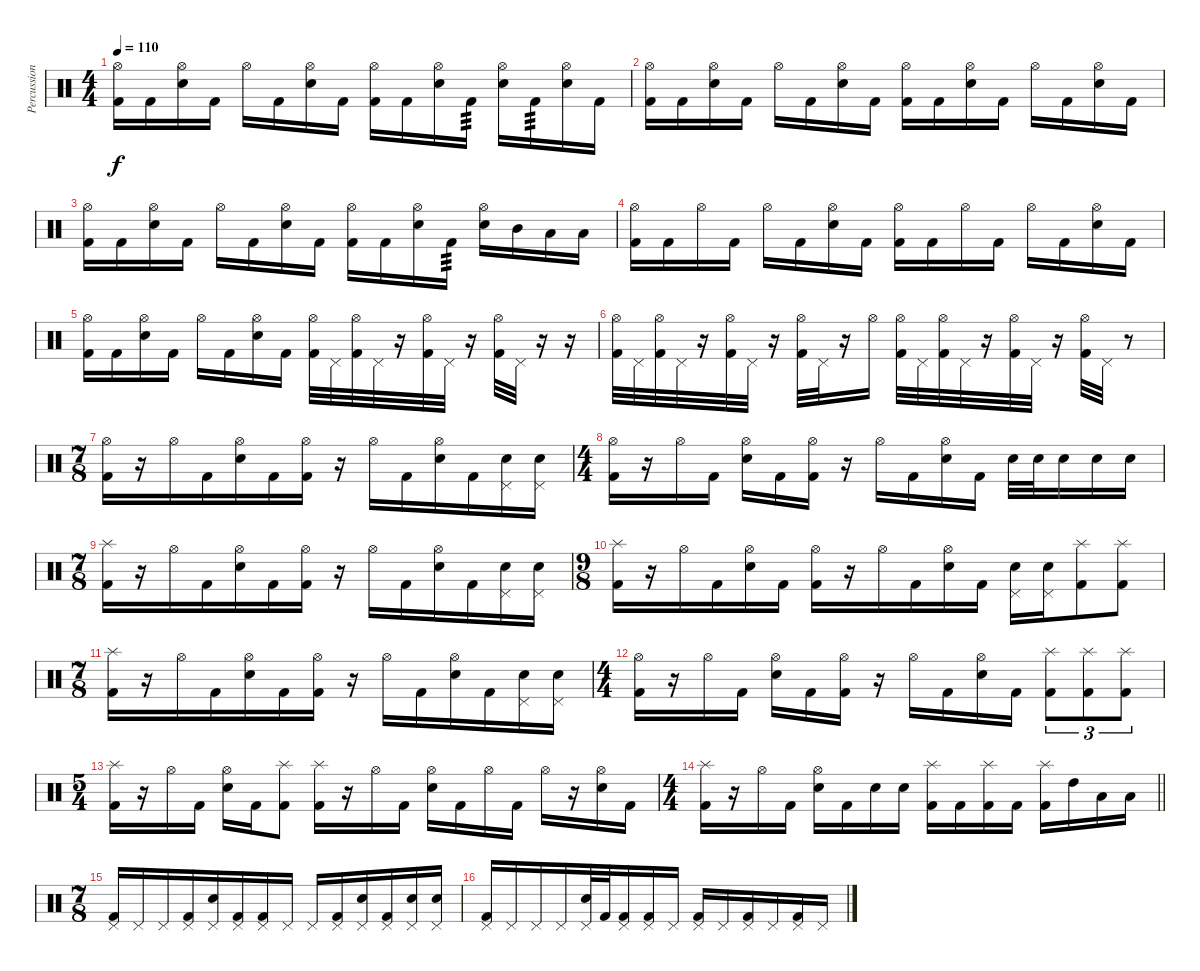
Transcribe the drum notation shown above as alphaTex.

\track ("Percussion" "Percussion") {instrument percussion}
\staff {score}
\articulation defaults
\ts (4 4)
\tempo 110
\clef neutral
\ks c
("Hi-Hat (open)" "Kick (hit) 2").16{dy f} "Kick (hit) 2".16 ("Hi-Hat (open)" "Electric Snare (hit)").16 "Kick (hit) 2".16 "Hi-Hat (open)".16 "Kick (hit) 2".16 ("Hi-Hat (open)" "Electric Snare (hit)").16 "Kick (hit) 2".16 ("Hi-Hat (open)" "Kick (hit) 2").16 "Kick (hit) 2".16 ("Hi-Hat (open)" "Electric Snare (hit)").16 "Kick (hit) 2".16{tp 3} ("Hi-Hat (open)" "Electric Snare (hit)").16 "Kick (hit) 2".16{tp 3} ("Hi-Hat (open)" "Electric Snare (hit)").16 "Kick (hit) 2".16 |
("Hi-Hat (open)" "Kick (hit) 2").16 "Kick (hit) 2".16 ("Hi-Hat (open)" "Electric Snare (hit)").16 "Kick (hit) 2".16 "Hi-Hat (open)".16 "Kick (hit) 2".16 ("Hi-Hat (open)" "Electric Snare (hit)").16 "Kick (hit) 2".16 ("Hi-Hat (open)" "Kick (hit) 2").16 "Kick (hit) 2".16 ("Hi-Hat (open)" "Electric Snare (hit)").16 "Kick (hit) 2".16 "Hi-Hat (open)".16 "Kick (hit) 2".16 ("Hi-Hat (open)" "Electric Snare (hit)").16 "Kick (hit) 2".16 |
("Hi-Hat (open)" "Kick (hit) 2").16 "Kick (hit) 2".16 ("Hi-Hat (open)" "Electric Snare (hit)").16 "Kick (hit) 2".16 "Hi-Hat (open)".16 "Kick (hit) 2".16 ("Hi-Hat (open)" "Electric Snare (hit)").16 "Kick (hit) 2".16 ("Hi-Hat (open)" "Kick (hit) 2").16 "Kick (hit) 2".16 ("Hi-Hat (open)" "Electric Snare (hit)").16 "Kick (hit) 2".16{tp 3} ("Hi-Hat (open)" "Electric Snare (hit)").16 "Mid Tom (hit)".16 "Low Tom (hit)".16 "Low Floor Tom (hit)".16 |
("Hi-Hat (open)" "Kick (hit) 2").16 "Kick (hit) 2".16 "Hi-Hat (open)".16 "Kick (hit) 2".16 "Hi-Hat (open)".16 "Kick (hit) 2".16 ("Hi-Hat (open)" "Electric Snare (hit)").16 "Kick (hit) 2".16 ("Hi-Hat (open)" "Kick (hit) 2").16 "Kick (hit) 2".16 "Hi-Hat (open)".16 "Kick (hit) 2".16 "Hi-Hat (open)".16 "Kick (hit) 2".16 ("Hi-Hat (open)" "Electric Snare (hit)").16 "Kick (hit) 2".16 |
("Hi-Hat (open)" "Kick (hit) 2").16 "Kick (hit) 2".16 ("Hi-Hat (open)" "Electric Snare (hit)").16 "Kick (hit) 2".16 "Hi-Hat (open)".16 "Kick (hit) 2".16 ("Hi-Hat (open)" "Electric Snare (hit)").16 "Kick (hit) 2".16 ("Hi-Hat (open)" "Kick (hit) 2").32 "Pedal Hi-Hat (hit)".32 ("Hi-Hat (open)" "Kick (hit) 2").32 "Pedal Hi-Hat (hit)".32 r.16 ("Hi-Hat (open)" "Kick (hit) 2").32 "Pedal Hi-Hat (hit)".32 r.16 ("Hi-Hat (open)" "Kick (hit) 2").32 "Pedal Hi-Hat (hit)".32 r.16 r.16 |
("Hi-Hat (open)" "Kick (hit) 2").32 "Pedal Hi-Hat (hit)".32 ("Hi-Hat (open)" "Kick (hit) 2").32 "Pedal Hi-Hat (hit)".32 r.16 ("Hi-Hat (open)" "Kick (hit) 2").32 "Pedal Hi-Hat (hit)".32 r.16 ("Hi-Hat (open)" "Kick (hit) 2").32 "Pedal Hi-Hat (hit)".32 r.16 "Hi-Hat (open)".16 ("Hi-Hat (open)" "Kick (hit) 2").32 "Pedal Hi-Hat (hit)".32 ("Hi-Hat (open)" "Kick (hit) 2").32 "Pedal Hi-Hat (hit)".32 r.16 ("Hi-Hat (open)" "Kick (hit) 2").32 "Pedal Hi-Hat (hit)".32 r.16 ("Hi-Hat (open)" "Kick (hit) 2").32 "Pedal Hi-Hat (hit)".32 r.8 |
\ts (7 8)
("Hi-Hat (open)" "Kick (hit) 2").16 r.16 "Hi-Hat (open)".16 "Kick (hit) 2".16 ("Hi-Hat (open)" "Electric Snare (hit)").16 "Kick (hit) 2".16 ("Hi-Hat (open)" "Kick (hit) 2").16 r.16 "Hi-Hat (open)".16 "Kick (hit) 2".16 ("Hi-Hat (open)" "Electric Snare (hit)").16 "Kick (hit) 2".16 ("Pedal Hi-Hat (hit)" "Electric Snare (hit)").16 ("Pedal Hi-Hat (hit)" "Electric Snare (hit)").16 |
\ts (4 4)
("Hi-Hat (open)" "Kick (hit) 2").16 r.16 "Hi-Hat (open)".16 "Kick (hit) 2".16 ("Hi-Hat (open)" "Electric Snare (hit)").16 "Kick (hit) 2".16 ("Hi-Hat (open)" "Kick (hit) 2").16 r.16 "Hi-Hat (open)".16 "Kick (hit) 2".16 ("Hi-Hat (open)" "Electric Snare (hit)").16 "Kick (hit) 2".16 "Electric Snare (hit)".32 "Electric Snare (hit)".32 "Electric Snare (hit)".16 "Electric Snare (hit)".16 "Electric Snare (hit)".16 |
\ts (7 8)
("Splash (hit)" "Kick (hit) 2").16 r.16 "Hi-Hat (open)".16 "Kick (hit) 2".16 ("Hi-Hat (open)" "Electric Snare (hit)").16 "Kick (hit) 2".16 ("Hi-Hat (open)" "Kick (hit) 2").16 r.16 "Hi-Hat (open)".16 "Kick (hit) 2".16 ("Hi-Hat (open)" "Electric Snare (hit)").16 "Kick (hit) 2".16 ("Pedal Hi-Hat (hit)" "Electric Snare (hit)").16 ("Pedal Hi-Hat (hit)" "Electric Snare (hit)").16 |
\ts (9 8)
("Splash (hit)" "Kick (hit) 2").16 r.16 "Hi-Hat (open)".16 "Kick (hit) 2".16 ("Hi-Hat (open)" "Electric Snare (hit)").16 "Kick (hit) 2".16 ("Hi-Hat (open)" "Kick (hit) 2").16 r.16 "Hi-Hat (open)".16 "Kick (hit) 2".16 ("Hi-Hat (open)" "Electric Snare (hit)").16 "Kick (hit) 2".16 ("Pedal Hi-Hat (hit)" "Electric Snare (hit)").16 ("Pedal Hi-Hat (hit)" "Electric Snare (hit)").16 ("Splash (hit)" "Kick (hit) 2").8 ("Splash (hit)" "Kick (hit) 2").8 |
\ts (7 8)
("Splash (hit)" "Kick (hit) 2").16 r.16 "Hi-Hat (open)".16 "Kick (hit) 2".16 ("Hi-Hat (open)" "Electric Snare (hit)").16 "Kick (hit) 2".16 ("Hi-Hat (open)" "Kick (hit) 2").16 r.16 "Hi-Hat (open)".16 "Kick (hit) 2".16 ("Hi-Hat (open)" "Electric Snare (hit)").16 "Kick (hit) 2".16 ("Pedal Hi-Hat (hit)" "Electric Snare (hit)").16 ("Pedal Hi-Hat (hit)" "Electric Snare (hit)").16 |
\ts (4 4)
("Hi-Hat (open)" "Kick (hit) 2").16 r.16 "Hi-Hat (open)".16 "Kick (hit) 2".16 ("Hi-Hat (open)" "Electric Snare (hit)").16 "Kick (hit) 2".16 ("Hi-Hat (open)" "Kick (hit) 2").16 r.16 "Hi-Hat (open)".16 "Kick (hit) 2".16 ("Hi-Hat (open)" "Electric Snare (hit)").16 "Kick (hit) 2".16 ("Splash (hit)" "Kick (hit) 2").8{tu (3 2)} ("Splash (hit)" "Kick (hit) 2").8{tu (3 2)} ("Splash (hit)" "Kick (hit) 2").8{tu (3 2)} |
\ts (5 4)
("Splash (hit)" "Kick (hit) 2").16 r.16 "Hi-Hat (open)".16 "Kick (hit) 2".16 ("Hi-Hat (open)" "Electric Snare (hit)").16 "Kick (hit) 2".16 ("Splash (hit)" "Kick (hit) 2").8 ("Splash (hit)" "Kick (hit) 2").16 r.16 "Hi-Hat (open)".16 "Kick (hit) 2".16 ("Hi-Hat (open)" "Electric Snare (hit)").16 "Kick (hit) 2".16 "Hi-Hat (open)".16 "Kick (hit) 2".16 "Hi-Hat (open)".16 r.16 ("Hi-Hat (open)" "Electric Snare (hit)").16 "Kick (hit) 2".16 |
\ts (4 4)
\barLineRight lightlight
("Splash (hit)" "Kick (hit) 2").16 r.16 "Hi-Hat (open)".16 "Kick (hit) 2".16 ("Hi-Hat (open)" "Electric Snare (hit)").16 "Kick (hit) 2".16 "Electric Snare (hit)".16 "Electric Snare (hit)".16 ("Splash (hit)" "Kick (hit) 2").16 "Kick (hit) 2".16 ("Splash (hit)" "Kick (hit) 2").16 "Kick (hit) 2".16 ("Splash (hit)" "Kick (hit) 2").16 "High Tom (hit)".16 "Low Tom (hit)".16 "Low Floor Tom (hit)".16 |
\ts (7 8)
("Pedal Hi-Hat (hit)" "Kick (hit) 2").16 "Pedal Hi-Hat (hit)".16 "Pedal Hi-Hat (hit)".16 ("Pedal Hi-Hat (hit)" "Kick (hit) 2").16 ("Pedal Hi-Hat (hit)" "Electric Snare (hit)").16 ("Pedal Hi-Hat (hit)" "Kick (hit) 2").16 ("Pedal Hi-Hat (hit)" "Kick (hit) 2").16 "Pedal Hi-Hat (hit)".16 "Pedal Hi-Hat (hit)".16 ("Pedal Hi-Hat (hit)" "Kick (hit) 2").16 ("Pedal Hi-Hat (hit)" "Electric Snare (hit)").16 ("Pedal Hi-Hat (hit)" "Kick (hit) 2").16 ("Pedal Hi-Hat (hit)" "Electric Snare (hit)").16 ("Pedal Hi-Hat (hit)" "Electric Snare (hit)").16 |
("Pedal Hi-Hat (hit)" "Kick (hit) 2").16 "Pedal Hi-Hat (hit)".16 "Pedal Hi-Hat (hit)".16 "Pedal Hi-Hat (hit)".16 ("Pedal Hi-Hat (hit)" "Electric Snare (hit)").32 "Kick (hit) 2".32 ("Pedal Hi-Hat (hit)" "Kick (hit) 2").16 ("Pedal Hi-Hat (hit)" "Kick (hit) 2").16 "Pedal Hi-Hat (hit)".16 ("Pedal Hi-Hat (hit)" "Kick (hit) 2").16 "Pedal Hi-Hat (hit)".16 ("Pedal Hi-Hat (hit)" "Kick (hit) 2").16 "Pedal Hi-Hat (hit)".16 ("Pedal Hi-Hat (hit)" "Kick (hit) 2").16 "Pedal Hi-Hat (hit)".16
